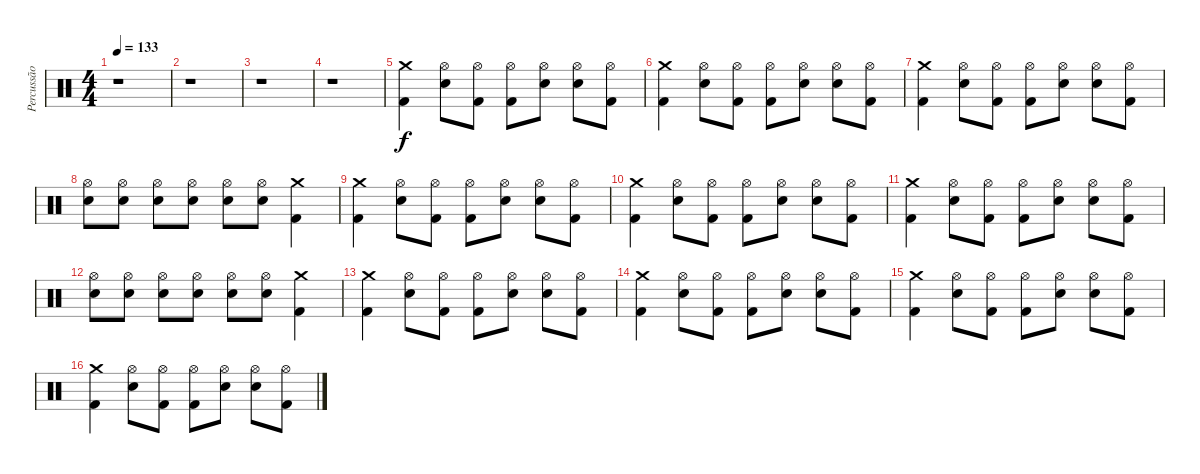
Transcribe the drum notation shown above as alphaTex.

\track ("Percussão" "Percussão") {instrument percussion}
\staff {score}
\articulation defaults
\ts (4 4)
\tempo 133
\clef neutral
\ks c
r.1{dy f} |
r.1 |
r.1 |
r.1 |
("Crash medium (hit)" "Kick (hit) 2").4 ("Electric Snare (hit)" "Hi-Hat (open)").8 ("Kick (hit) 2" "Hi-Hat (open)").8 ("Kick (hit) 2" "Hi-Hat (open)").8 ("Electric Snare (hit)" "Hi-Hat (open)").8 ("Electric Snare (hit)" "Hi-Hat (open)").8 ("Kick (hit) 2" "Hi-Hat (open)").8 |
("Crash medium (hit)" "Kick (hit) 2").4 ("Electric Snare (hit)" "Hi-Hat (open)").8 ("Kick (hit) 2" "Hi-Hat (open)").8 ("Kick (hit) 2" "Hi-Hat (open)").8 ("Electric Snare (hit)" "Hi-Hat (open)").8 ("Electric Snare (hit)" "Hi-Hat (open)").8 ("Kick (hit) 2" "Hi-Hat (open)").8 |
("Crash medium (hit)" "Kick (hit) 2").4 ("Electric Snare (hit)" "Hi-Hat (open)").8 ("Kick (hit) 2" "Hi-Hat (open)").8 ("Kick (hit) 2" "Hi-Hat (open)").8 ("Electric Snare (hit)" "Hi-Hat (open)").8 ("Electric Snare (hit)" "Hi-Hat (open)").8 ("Kick (hit) 2" "Hi-Hat (open)").8 |
("Snare (hit) 2" "Hi-Hat (open)").8 ("Electric Snare (hit)" "Hi-Hat (open)").8 ("Electric Snare (hit)" "Hi-Hat (open)").8 ("Electric Snare (hit)" "Hi-Hat (open)").8 ("Electric Snare (hit)" "Hi-Hat (open)").8 ("Electric Snare (hit)" "Hi-Hat (open)").8 ("Crash medium (hit)" "Kick (hit) 2").4 |
("Crash medium (hit)" "Kick (hit) 2").4 ("Electric Snare (hit)" "Hi-Hat (open)").8 ("Kick (hit) 2" "Hi-Hat (open)").8 ("Kick (hit) 2" "Hi-Hat (open)").8 ("Electric Snare (hit)" "Hi-Hat (open)").8 ("Electric Snare (hit)" "Hi-Hat (open)").8 ("Kick (hit) 2" "Hi-Hat (open)").8 |
("Crash medium (hit)" "Kick (hit) 2").4 ("Electric Snare (hit)" "Hi-Hat (open)").8 ("Kick (hit) 2" "Hi-Hat (open)").8 ("Kick (hit) 2" "Hi-Hat (open)").8 ("Electric Snare (hit)" "Hi-Hat (open)").8 ("Electric Snare (hit)" "Hi-Hat (open)").8 ("Kick (hit) 2" "Hi-Hat (open)").8 |
("Crash medium (hit)" "Kick (hit) 2").4 ("Electric Snare (hit)" "Hi-Hat (open)").8 ("Kick (hit) 2" "Hi-Hat (open)").8 ("Kick (hit) 2" "Hi-Hat (open)").8 ("Electric Snare (hit)" "Hi-Hat (open)").8 ("Electric Snare (hit)" "Hi-Hat (open)").8 ("Kick (hit) 2" "Hi-Hat (open)").8 |
("Snare (hit) 2" "Hi-Hat (open)").8 ("Electric Snare (hit)" "Hi-Hat (open)").8 ("Electric Snare (hit)" "Hi-Hat (open)").8 ("Electric Snare (hit)" "Hi-Hat (open)").8 ("Electric Snare (hit)" "Hi-Hat (open)").8 ("Electric Snare (hit)" "Hi-Hat (open)").8 ("Crash medium (hit)" "Kick (hit) 2").4 |
("Crash medium (hit)" "Kick (hit) 2").4 ("Electric Snare (hit)" "Hi-Hat (open)").8 ("Kick (hit) 2" "Hi-Hat (open)").8 ("Kick (hit) 2" "Hi-Hat (open)").8 ("Electric Snare (hit)" "Hi-Hat (open)").8 ("Electric Snare (hit)" "Hi-Hat (open)").8 ("Kick (hit) 2" "Hi-Hat (open)").8 |
("Crash medium (hit)" "Kick (hit) 2").4 ("Electric Snare (hit)" "Hi-Hat (open)").8 ("Kick (hit) 2" "Hi-Hat (open)").8 ("Kick (hit) 2" "Hi-Hat (open)").8 ("Electric Snare (hit)" "Hi-Hat (open)").8 ("Electric Snare (hit)" "Hi-Hat (open)").8 ("Kick (hit) 2" "Hi-Hat (open)").8 |
("Crash medium (hit)" "Kick (hit) 2").4 ("Electric Snare (hit)" "Hi-Hat (open)").8 ("Kick (hit) 2" "Hi-Hat (open)").8 ("Kick (hit) 2" "Hi-Hat (open)").8 ("Electric Snare (hit)" "Hi-Hat (open)").8 ("Electric Snare (hit)" "Hi-Hat (open)").8 ("Kick (hit) 2" "Hi-Hat (open)").8 |
("Crash medium (hit)" "Kick (hit) 2").4 ("Electric Snare (hit)" "Hi-Hat (open)").8 ("Kick (hit) 2" "Hi-Hat (open)").8 ("Kick (hit) 2" "Hi-Hat (open)").8 ("Electric Snare (hit)" "Hi-Hat (open)").8 ("Electric Snare (hit)" "Hi-Hat (open)").8 ("Kick (hit) 2" "Hi-Hat (open)").8
